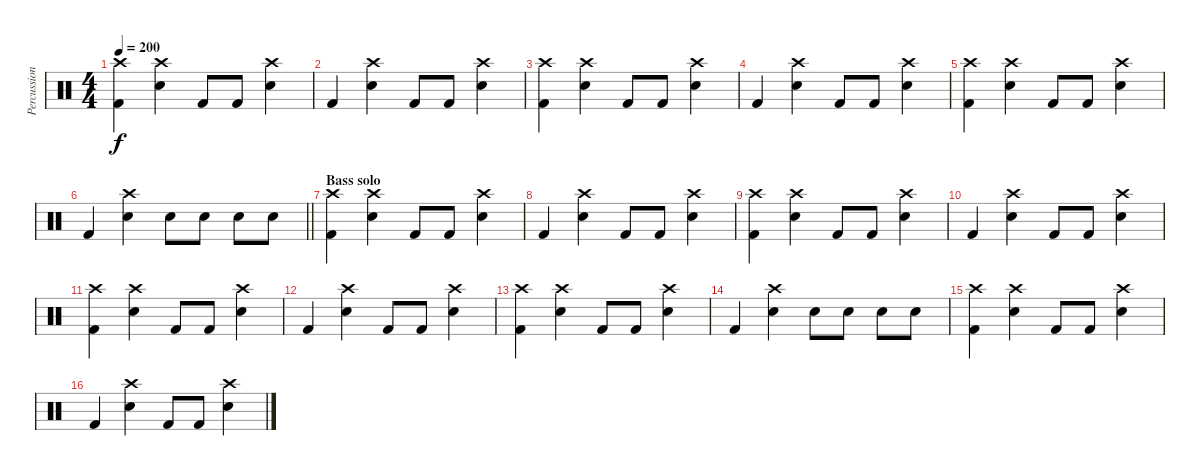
\track ("Percussion" "Percussion") {instrument percussion}
\staff {score}
\articulation defaults
\ts (4 4)
\tempo 200
\clef neutral
\ks c
("Crash high (hit)" "Kick (hit) 2").4{dy f} ("Crash high (hit)" "Snare (hit) 2").4 "Kick (hit) 2".8 "Kick (hit) 2".8 ("Crash high (hit)" "Snare (hit) 2").4 |
"Kick (hit) 2".4 ("Crash high (hit)" "Snare (hit) 2").4 "Kick (hit) 2".8 "Kick (hit) 2".8 ("Crash high (hit)" "Snare (hit) 2").4 |
("Crash high (hit)" "Kick (hit) 2").4 ("Crash high (hit)" "Snare (hit) 2").4 "Kick (hit) 2".8 "Kick (hit) 2".8 ("Crash high (hit)" "Snare (hit) 2").4 |
"Kick (hit) 2".4 ("Crash high (hit)" "Snare (hit) 2").4 "Kick (hit) 2".8 "Kick (hit) 2".8 ("Crash high (hit)" "Snare (hit) 2").4 |
("Crash high (hit)" "Kick (hit) 2").4 ("Crash high (hit)" "Snare (hit) 2").4 "Kick (hit) 2".8 "Kick (hit) 2".8 ("Crash high (hit)" "Snare (hit) 2").4 |
\barLineRight lightlight "Kick (hit) 2".4
("Crash high (hit)" "Snare (hit) 2").4 "Snare (hit) 2".8 "Snare (hit) 2".8 "Snare (hit) 2".8 "Snare (hit) 2".8 |
\section ("" "Bass solo")
("Crash high (hit)" "Kick (hit) 2").4 ("Crash high (hit)" "Snare (hit) 2").4 "Kick (hit) 2".8 "Kick (hit) 2".8 ("Crash high (hit)" "Snare (hit) 2").4 |
"Kick (hit) 2".4 ("Crash high (hit)" "Snare (hit) 2").4 "Kick (hit) 2".8 "Kick (hit) 2".8 ("Crash high (hit)" "Snare (hit) 2").4 |
("Crash high (hit)" "Kick (hit) 2").4 ("Crash high (hit)" "Snare (hit) 2").4 "Kick (hit) 2".8 "Kick (hit) 2".8 ("Crash high (hit)" "Snare (hit) 2").4 |
"Kick (hit) 2".4 ("Crash high (hit)" "Snare (hit) 2").4 "Kick (hit) 2".8 "Kick (hit) 2".8 ("Crash high (hit)" "Snare (hit) 2").4 |
("Crash high (hit)" "Kick (hit) 2").4 ("Crash high (hit)" "Snare (hit) 2").4 "Kick (hit) 2".8 "Kick (hit) 2".8 ("Crash high (hit)" "Snare (hit) 2").4 |
"Kick (hit) 2".4 ("Crash high (hit)" "Snare (hit) 2").4 "Kick (hit) 2".8 "Kick (hit) 2".8 ("Crash high (hit)" "Snare (hit) 2").4 |
("Crash high (hit)" "Kick (hit) 2").4 ("Crash high (hit)" "Snare (hit) 2").4 "Kick (hit) 2".8 "Kick (hit) 2".8 ("Crash high (hit)" "Snare (hit) 2").4 |
"Kick (hit) 2".4 ("Crash high (hit)" "Snare (hit) 2").4 "Snare (hit) 2".8 "Snare (hit) 2".8 "Snare (hit) 2".8 "Snare (hit) 2".8 |
("Crash high (hit)" "Kick (hit) 2").4 ("Crash high (hit)" "Snare (hit) 2").4 "Kick (hit) 2".8 "Kick (hit) 2".8 ("Crash high (hit)" "Snare (hit) 2").4 |
"Kick (hit) 2".4 ("Crash high (hit)" "Snare (hit) 2").4 "Kick (hit) 2".8 "Kick (hit) 2".8 ("Crash high (hit)" "Snare (hit) 2").4
